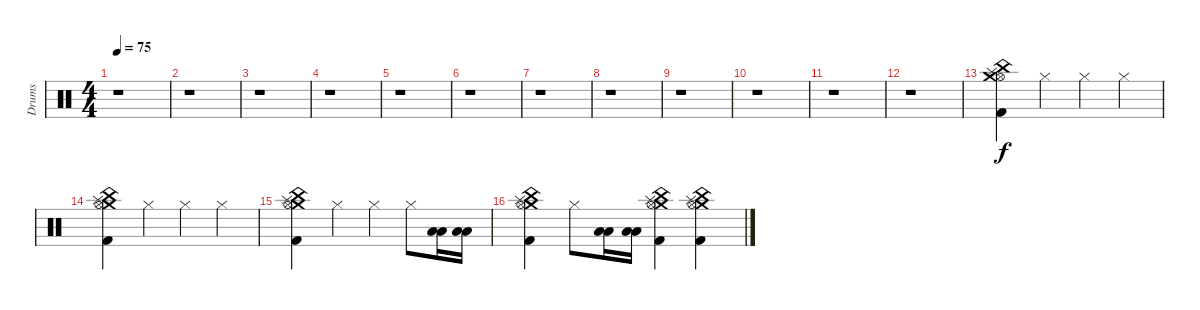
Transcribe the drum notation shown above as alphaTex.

\track ("Drums" "Drums") {instrument percussion}
\staff {score}
\articulation defaults
\ts (4 4)
\tempo 75
\clef neutral
\ks c
r.1{dy f} |
r.1 |
r.1 |
r.1 |
r.1 |
r.1 |
r.1 |
r.1 |
r.1 |
r.1 |
r.1 |
r.1 |
("Splash (hit)" "China (hit)" "Hi-Hat (open)" "Crash medium (hit)" "Kick (hit) 2").4 "Hi-Hat (closed)".4 "Hi-Hat (closed)".4 "Hi-Hat (closed)".4 |
("Splash (hit)" "China (hit)" "Crash medium (hit)" "Hi-Hat (open)" "Kick (hit) 2").4 "Hi-Hat (closed)".4 "Hi-Hat (closed)".4 "Hi-Hat (closed)".4 |
("Splash (hit)" "China (hit)" "Crash medium (hit)" "Hi-Hat (open)" "Kick (hit) 2").4 "Hi-Hat (closed)".4 "Hi-Hat (closed)".4 "Hi-Hat (closed)".8 ("Low Tom (hit)" "Low Floor Tom (hit)").16 ("Low Tom (hit)" "Low Floor Tom (hit)").16 |
("Splash (hit)" "China (hit)" "Crash medium (hit)" "Hi-Hat (open)" "Kick (hit) 2").4 "Hi-Hat (closed)".8 ("Low Tom (hit)" "Low Floor Tom (hit)").16 ("Low Tom (hit)" "Low Floor Tom (hit)").16 ("China (hit)" "Splash (hit)" "Crash medium (hit)" "Hi-Hat (open)" "Kick (hit) 2").4 ("China (hit)" "Splash (hit)" "Crash medium (hit)" "Hi-Hat (open)" "Kick (hit) 2").4
